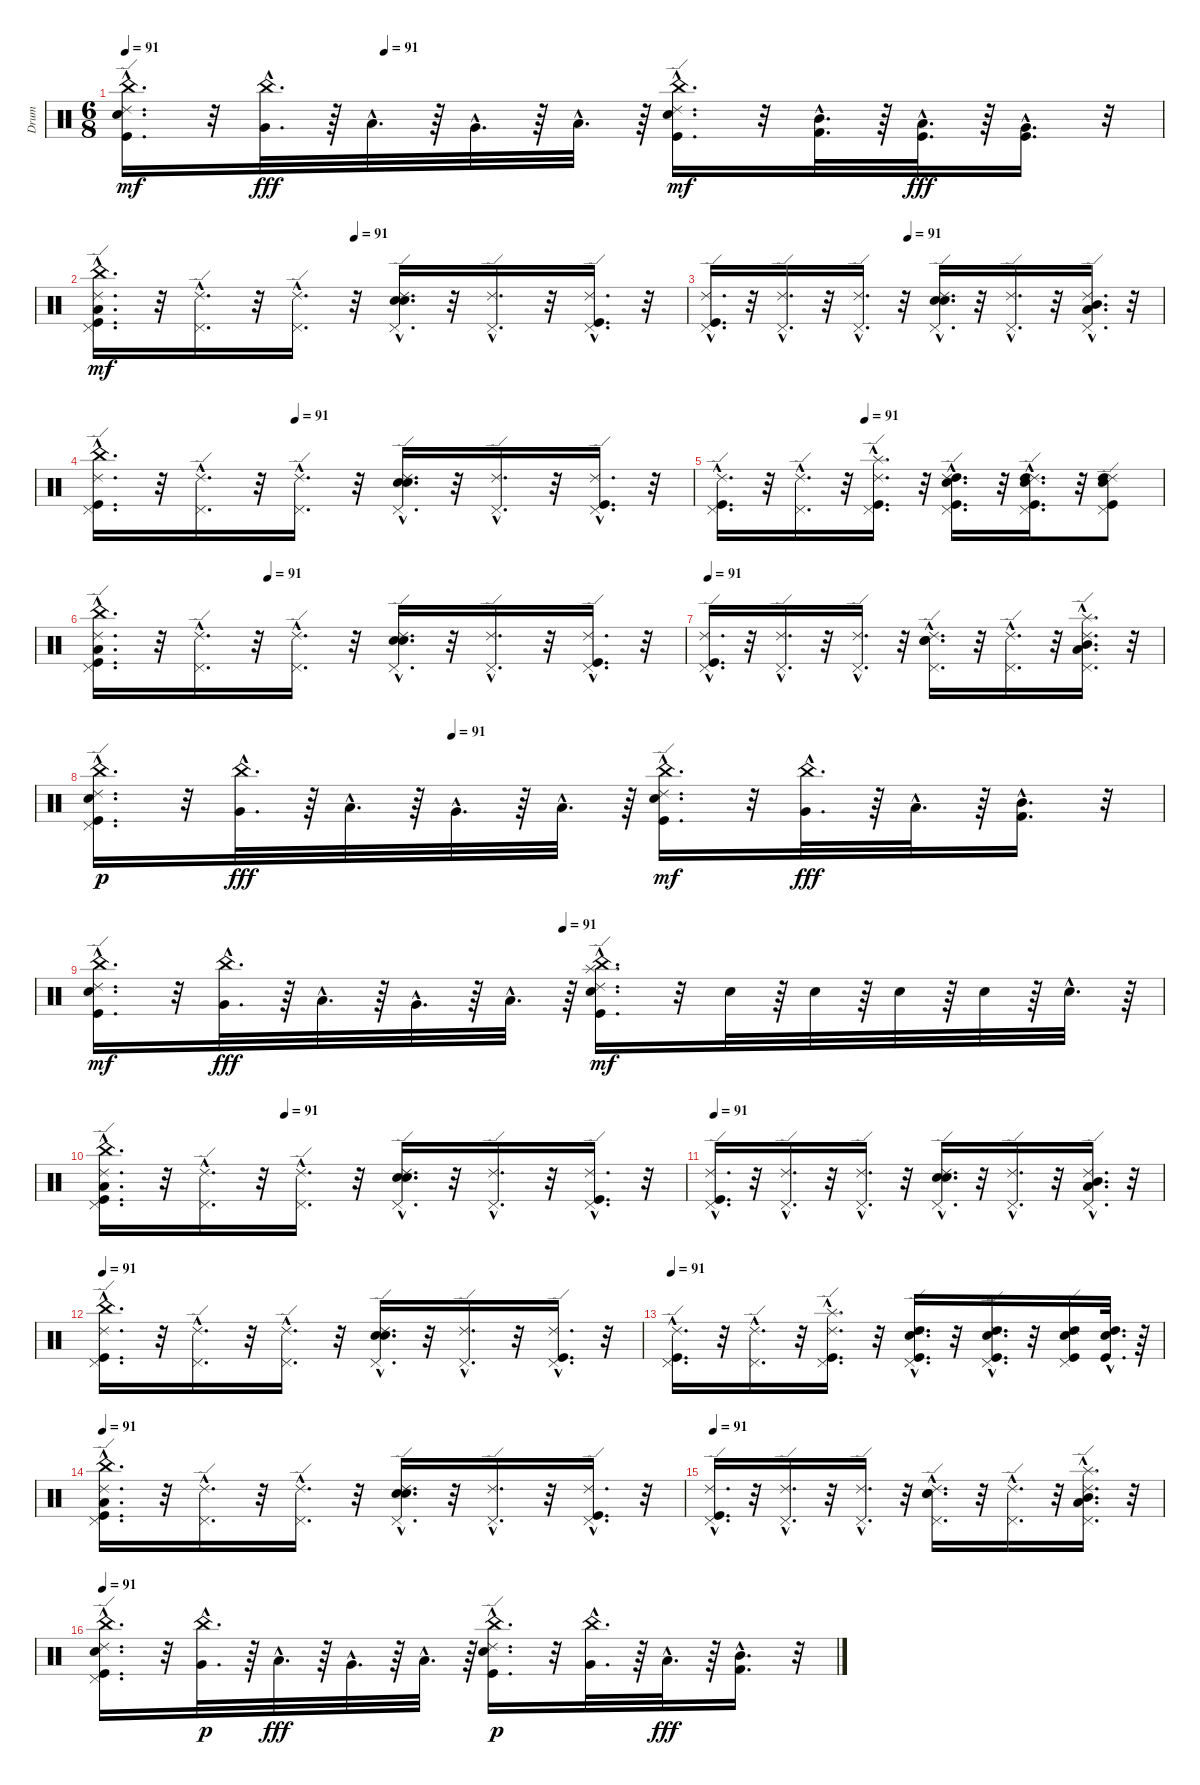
\track ("Drum" "Drum") {instrument percussion}
\staff {score}
\articulation defaults
\ts (6 8)
\tempo 91
\tempo (91 0.25)
\clef neutral
\ks c
("China (hit)"{hac} "Ride (edge) 2"{hac} "Kick (hit)"{hac} "Snare (hit) 2"{hac}).16{d dy mf} r.32 ("China (hit)"{hac} "Very Low Tom (hit)"{hac}).32{d dy fff} r.64 "Low Floor Tom (hit)"{hac}.32{d} r.64 "Very Low Tom (hit)"{hac}.32{d} r.64 "Low Floor Tom (hit)"{hac}.32{d} r.64 ("China (hit)"{hac} "Kick (hit)"{hac} "Snare (hit) 2"{hac} "Ride (edge) 2"{hac}).16{d dy mf} r.32 ("Mid Tom (hit)"{hac} "Kick (hit) 2"{hac}).32{d} r.64 ("Kick (hit)"{hac} "Low Tom (hit)"{hac}).32{d dy fff} r.64 ("Kick (hit)"{hac} "Very Low Tom (hit)"{hac}).16{d} r.32 |
\tempo (91 0.4375)
("Low Floor Tom (hit)"{hac} "Kick (hit)"{hac} "Pedal Hi-Hat (hit)"{hac} "Ride (edge) 2"{hac} "China (hit)"{hac}).16{d dy mf} r.32 ("Pedal Hi-Hat (hit)"{hac} "Ride (edge) 2"{hac}).16{d} r.32 ("Pedal Hi-Hat (hit)"{hac} "Ride (edge) 2"{hac}).16{d} r.32 ("Pedal Hi-Hat (hit)"{hac} "Snare (hit) 2"{hac} "Ride (edge) 2"{hac} "Hand Clap (hit)"{hac}).16{d} r.32 ("Pedal Hi-Hat (hit)"{hac} "Ride (edge) 2"{hac}).16{d} r.32 ("Kick (hit)"{hac} "Pedal Hi-Hat (hit)"{hac} "Ride (edge) 2"{hac}).16{d} r.32 |
\tempo (91 0.4375)
("Ride (edge) 2"{hac} "Pedal Hi-Hat (hit)"{hac} "Kick (hit)"{hac}).16{d} r.32 ("Ride (edge) 2"{hac} "Pedal Hi-Hat (hit)"{hac}).16{d} r.32 ("Ride (edge) 2"{hac} "Pedal Hi-Hat (hit)"{hac}).16{d} r.32 ("Hand Clap (hit)"{hac} "Ride (edge) 2"{hac} "Snare (hit) 2"{hac} "Pedal Hi-Hat (hit)"{hac}).16{d} r.32 ("Ride (edge) 2"{hac} "Pedal Hi-Hat (hit)"{hac}).16{d} r.32 ("Low Floor Tom (hit)"{hac} "Mid Tom (hit)"{hac} "Ride (edge) 2"{hac} "Pedal Hi-Hat (hit)"{hac}).16{d} r.32 |
\tempo (91 0.3333333333333333)
("China (hit)"{hac} "Ride (edge) 2"{hac} "Pedal Hi-Hat (hit)"{hac} "Kick (hit)"{hac}).16{d} r.32 ("Ride (edge) 2"{hac} "Pedal Hi-Hat (hit)"{hac}).16{d} r.32 ("Ride (edge) 2"{hac} "Pedal Hi-Hat (hit)"{hac}).16{d} r.32 ("Hand Clap (hit)"{hac} "Ride (edge) 2"{hac} "Snare (hit) 2"{hac} "Pedal Hi-Hat (hit)"{hac}).16{d} r.32 ("Ride (edge) 2"{hac} "Pedal Hi-Hat (hit)"{hac}).16{d} r.32 ("Kick (hit)"{hac} "Ride (edge) 2"{hac} "Pedal Hi-Hat (hit)"{hac}).16{d} r.32 |
\tempo (91 0.3333333333333333)
("Pedal Hi-Hat (hit)"{hac} "Ride (edge) 2"{hac} "Kick (hit)"{hac}).16{d} r.32 ("Pedal Hi-Hat (hit)"{hac} "Ride (edge) 2"{hac}).16{d} r.32 ("Splash (hit)"{hac} "Kick (hit)"{hac} "Ride (edge) 2"{hac} "Pedal Hi-Hat (hit)"{hac}).16{d} r.32 ("Kick (hit)"{hac} "Pedal Hi-Hat (hit)"{hac} "Snare (hit) 2"{hac} "High Tom (hit)"{hac} "Ride (edge) 2"{hac}).16{d} r.32 ("Pedal Hi-Hat (hit)"{hac} "Snare (hit) 2"{hac} "Ride (edge) 2"{hac} "High Tom (hit)"{hac} "Kick (hit)"{hac}).16{d} r.32 ("Kick (hit)" "Ride (edge) 2" "Pedal Hi-Hat (hit)" "High Tom (hit)" "Snare (hit) 2").8 |
\tempo (91 0.2916666666666667)
("Low Floor Tom (hit)"{hac} "Kick (hit)"{hac} "Pedal Hi-Hat (hit)"{hac} "China (hit)"{hac} "Ride (edge) 2"{hac}).16{d} r.32 ("Pedal Hi-Hat (hit)"{hac} "Ride (edge) 2"{hac}).16{d} r.32 ("Ride (edge) 2"{hac} "Pedal Hi-Hat (hit)"{hac}).16{d} r.32 ("Snare (hit) 2"{hac} "Ride (edge) 2"{hac} "Hand Clap (hit)"{hac} "Pedal Hi-Hat (hit)"{hac}).16{d} r.32 ("Ride (edge) 2"{hac} "Pedal Hi-Hat (hit)"{hac}).16{d} r.32 ("Kick (hit)"{hac} "Pedal Hi-Hat (hit)"{hac} "Ride (edge) 2"{hac}).16{d} r.32 |
\tempo 91
("Kick (hit)"{hac} "Pedal Hi-Hat (hit)"{hac} "Ride (edge) 2"{hac}).16{d} r.32 ("Pedal Hi-Hat (hit)"{hac} "Ride (edge) 2"{hac}).16{d} r.32 ("Pedal Hi-Hat (hit)"{hac} "Ride (edge) 2"{hac}).16{d} r.32 ("Pedal Hi-Hat (hit)"{hac} "Snare (hit) 2"{hac} "Ride (edge) 2"{hac} "Hand Clap (hit)"{hac}).16{d} r.32 ("Pedal Hi-Hat (hit)"{hac} "Ride (edge) 2"{hac}).16{d} r.32 ("Splash (hit)"{hac} "Pedal Hi-Hat (hit)"{hac} "Ride (edge) 2"{hac} "Mid Tom (hit)"{hac} "Low Floor Tom (hit)"{hac}).16{d} r.32 |
\tempo (91 0.3333333333333333)
("Snare (hit) 2"{hac} "Kick (hit)"{hac} "Ride (edge) 2"{hac} "Pedal Hi-Hat (hit)"{hac} "China (hit)"{hac}).16{d dy p} r.32 ("China (hit)"{hac} "Very Low Tom (hit)"{hac}).32{d dy fff} r.64 "Low Floor Tom (hit)"{hac}.32{d} r.64 "Very Low Tom (hit)"{hac}.32{d} r.64 "Low Floor Tom (hit)"{hac}.32{d} r.64 ("China (hit)"{hac} "Snare (hit) 2"{hac} "Ride (edge) 2"{hac} "Kick (hit)"{hac}).16{d dy mf} r.32 ("China (hit)"{hac} "Very Low Tom (hit)"{hac}).32{d dy fff} r.64 "Low Floor Tom (hit)"{hac}.32{d} r.64 ("Kick (hit) 2"{hac} "Mid Tom (hit)"{hac}).16{d} r.32 |
\tempo (91 0.4375)
("China (hit)"{hac} "Snare (hit) 2"{hac} "Ride (edge) 2"{hac} "Kick (hit)"{hac}).16{d dy mf} r.32 ("China (hit)"{hac} "Very Low Tom (hit)"{hac}).32{d dy fff} r.64 "Low Floor Tom (hit)"{hac}.32{d} r.64 "Very Low Tom (hit)"{hac}.32{d} r.64 "Low Floor Tom (hit)"{hac}.32{d} r.64 ("Splash (hit)"{hac} "China (hit)"{hac} "Ride (edge) 2"{hac} "Snare (hit) 2"{hac} "Kick (hit)"{hac}).16{d dy mf} r.32 "Snare (hit) 2".32 r.64 "Snare (hit) 2".32 r.64 "Snare (hit) 2".32 r.64 "Snare (hit) 2".32 r.64 "Snare (hit) 2"{hac}.32{d} r.64 |
\tempo (91 0.3125)
("China (hit)"{hac} "Ride (edge) 2"{hac} "Pedal Hi-Hat (hit)"{hac} "Kick (hit)"{hac} "Low Floor Tom (hit)"{hac}).16{d} r.32 ("Ride (edge) 2"{hac} "Pedal Hi-Hat (hit)"{hac}).16{d} r.32 ("Ride (edge) 2"{hac} "Pedal Hi-Hat (hit)"{hac}).16{d} r.32 ("Hand Clap (hit)"{hac} "Ride (edge) 2"{hac} "Snare (hit) 2"{hac} "Pedal Hi-Hat (hit)"{hac}).16{d} r.32 ("Ride (edge) 2"{hac} "Pedal Hi-Hat (hit)"{hac}).16{d} r.32 ("Ride (edge) 2"{hac} "Pedal Hi-Hat (hit)"{hac} "Kick (hit)"{hac}).16{d} r.32 |
\tempo 91
("Kick (hit)"{hac} "Pedal Hi-Hat (hit)"{hac} "Ride (edge) 2"{hac}).16{d} r.32 ("Pedal Hi-Hat (hit)"{hac} "Ride (edge) 2"{hac}).16{d} r.32 ("Pedal Hi-Hat (hit)"{hac} "Ride (edge) 2"{hac}).16{d} r.32 ("Pedal Hi-Hat (hit)"{hac} "Snare (hit) 2"{hac} "Ride (edge) 2"{hac} "Hand Clap (hit)"{hac}).16{d} r.32 ("Pedal Hi-Hat (hit)"{hac} "Ride (edge) 2"{hac}).16{d} r.32 ("Pedal Hi-Hat (hit)"{hac} "Ride (edge) 2"{hac} "Mid Tom (hit)"{hac} "Low Floor Tom (hit)"{hac}).16{d} r.32 |
\tempo 91
("Kick (hit)"{hac} "Pedal Hi-Hat (hit)"{hac} "Ride (edge) 2"{hac} "China (hit)"{hac}).16{d} r.32 ("Pedal Hi-Hat (hit)"{hac} "Ride (edge) 2"{hac}).16{d} r.32 ("Pedal Hi-Hat (hit)"{hac} "Ride (edge) 2"{hac}).16{d} r.32 ("Pedal Hi-Hat (hit)"{hac} "Snare (hit) 2"{hac} "Ride (edge) 2"{hac} "Hand Clap (hit)"{hac}).16{d} r.32 ("Pedal Hi-Hat (hit)"{hac} "Ride (edge) 2"{hac}).16{d} r.32 ("Pedal Hi-Hat (hit)"{hac} "Ride (edge) 2"{hac} "Kick (hit)"{hac}).16{d} r.32 |
\tempo 91
("Kick (hit)"{hac} "Pedal Hi-Hat (hit)"{hac} "Ride (edge) 2"{hac}).16{d} r.32 ("Pedal Hi-Hat (hit)"{hac} "Ride (edge) 2"{hac}).16{d} r.32 ("Kick (hit)"{hac} "Ride (edge) 2"{hac} "Splash (hit)"{hac} "Pedal Hi-Hat (hit)"{hac}).16{d} r.32 ("Ride (edge) 2"{hac} "Snare (hit) 2"{hac} "Kick (hit)"{hac} "Pedal Hi-Hat (hit)"{hac} "High Tom (hit)"{hac}).16{d} r.32 ("Kick (hit)"{hac} "Pedal Hi-Hat (hit)"{hac} "High Tom (hit)"{hac} "Ride (edge) 2"{hac} "Snare (hit) 2"{hac}).16{d} r.32 ("Ride (edge) 2" "Kick (hit)" "Pedal Hi-Hat (hit)" "Snare (hit) 2" "High Tom (hit)").16 ("High Tom (hit)"{hac} "Kick (hit)"{hac} "Snare (hit) 2"{hac}).32{d} r.64 |
\tempo 91
("Ride (edge) 2"{hac} "China (hit)"{hac} "Pedal Hi-Hat (hit)"{hac} "Kick (hit)"{hac} "Low Floor Tom (hit)"{hac}).16{d} r.32 ("Ride (edge) 2"{hac} "Pedal Hi-Hat (hit)"{hac}).16{d} r.32 ("Pedal Hi-Hat (hit)"{hac} "Ride (edge) 2"{hac}).16{d} r.32 ("Pedal Hi-Hat (hit)"{hac} "Hand Clap (hit)"{hac} "Ride (edge) 2"{hac} "Snare (hit) 2"{hac}).16{d} r.32 ("Pedal Hi-Hat (hit)"{hac} "Ride (edge) 2"{hac}).16{d} r.32 ("Ride (edge) 2"{hac} "Pedal Hi-Hat (hit)"{hac} "Kick (hit)"{hac}).16{d} r.32 |
\tempo 91
("Ride (edge) 2"{hac} "Pedal Hi-Hat (hit)"{hac} "Kick (hit)"{hac}).16{d} r.32 ("Ride (edge) 2"{hac} "Pedal Hi-Hat (hit)"{hac}).16{d} r.32 ("Ride (edge) 2"{hac} "Pedal Hi-Hat (hit)"{hac}).16{d} r.32 ("Hand Clap (hit)"{hac} "Ride (edge) 2"{hac} "Snare (hit) 2"{hac} "Pedal Hi-Hat (hit)"{hac}).16{d} r.32 ("Ride (edge) 2"{hac} "Pedal Hi-Hat (hit)"{hac}).16{d} r.32 ("Low Floor Tom (hit)"{hac} "Mid Tom (hit)"{hac} "Ride (edge) 2"{hac} "Pedal Hi-Hat (hit)"{hac} "Splash (hit)"{hac}).16{d} r.32 |
\tempo 91
("China (hit)"{hac} "Pedal Hi-Hat (hit)"{hac} "Ride (edge) 2"{hac} "Kick (hit)"{hac} "Snare (hit) 2"{hac}).16{d} r.32 ("Very Low Tom (hit)"{hac} "China (hit)"{hac}).32{d dy p} r.64 "Low Floor Tom (hit)"{hac}.32{d dy fff} r.64 "Very Low Tom (hit)"{hac}.32{d} r.64 "Low Floor Tom (hit)"{hac}.32{d} r.64 ("Kick (hit)"{hac} "Ride (edge) 2"{hac} "Snare (hit) 2"{hac} "China (hit)"{hac}).16{d dy p} r.32 ("Very Low Tom (hit)"{hac} "China (hit)"{hac}).32{d} r.64 "Low Floor Tom (hit)"{hac}.32{d dy fff} r.64 ("Mid Tom (hit)"{hac} "Kick (hit) 2"{hac}).16{d} r.32
